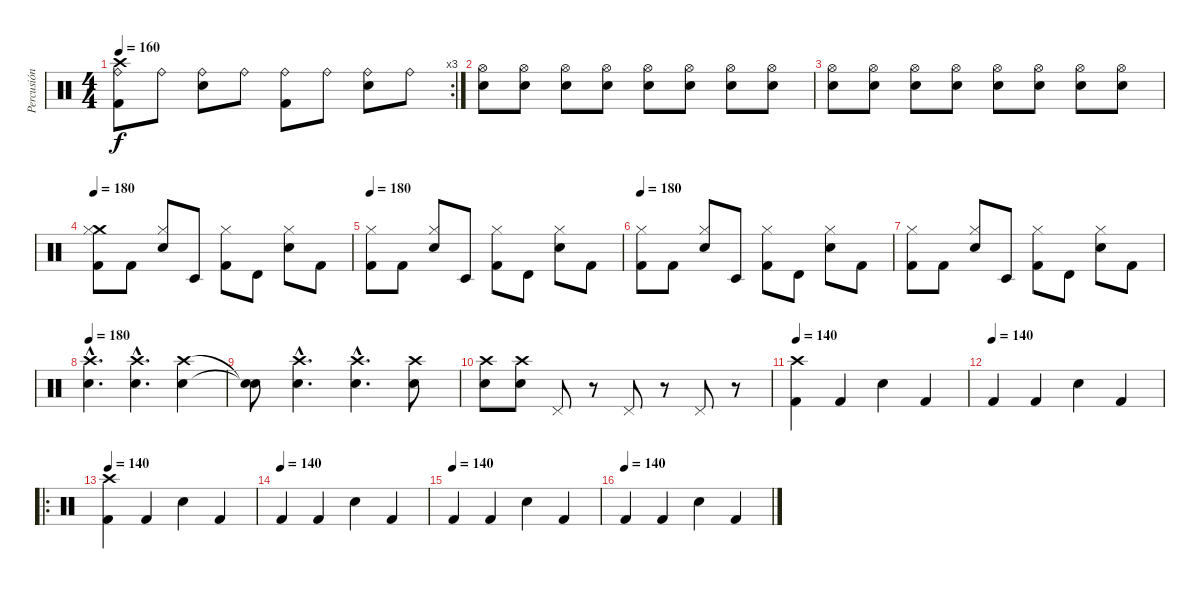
\track ("Percusión" "Percusión") {instrument percussion}
\staff {score}
\articulation defaults
\rc 3
\ts (4 4)
\tempo 160
\clef neutral
\ks c
("Crash high (hit)" "Ride (bell)" "Kick (hit) 2").8{dy f} "Ride (bell)".8 ("Ride (bell)" "Snare (hit) 2").8 "Ride (bell)".8 ("Ride (bell)" "Kick (hit) 2").8 "Ride (bell)".8 ("Ride (bell)" "Snare (hit) 2").8 "Ride (bell)".8 |
("Hi-Hat (open)" "Snare (hit) 2").8 ("Hi-Hat (open)" "Snare (hit) 2").8 ("Hi-Hat (open)" "Snare (hit) 2").8 ("Hi-Hat (open)" "Snare (hit) 2").8 ("Hi-Hat (open)" "Snare (hit) 2").8 ("Hi-Hat (open)" "Snare (hit) 2").8 ("Hi-Hat (open)" "Snare (hit) 2").8 ("Hi-Hat (open)" "Snare (hit) 2").8 |
("Hi-Hat (open)" "Snare (hit) 2").8 ("Hi-Hat (open)" "Snare (hit) 2").8 ("Hi-Hat (open)" "Snare (hit) 2").8 ("Hi-Hat (open)" "Snare (hit) 2").8 ("Hi-Hat (open)" "Snare (hit) 2").8 ("Hi-Hat (open)" "Snare (hit) 2").8 ("Hi-Hat (open)" "Snare (hit) 2").8 ("Hi-Hat (open)" "Snare (hit) 2").8 |
\tempo 180
("Crash medium (hit)" "Hi-Hat (closed)" "Kick (hit) 2").8 "Kick (hit) 2".8 ("Hi-Hat (closed)" "Snare (hit) 2").8 "Timbale low (hit)".8 ("Hi-Hat (closed)" "Kick (hit) 2").8 "Timbale high (hit)".8 ("Hi-Hat (closed)" "Snare (hit) 2").8 "Kick (hit) 2".8 |
\tempo 180
("Hi-Hat (closed)" "Kick (hit) 2").8 "Kick (hit) 2".8 ("Hi-Hat (closed)" "Snare (hit) 2").8 "Timbale low (hit)".8 ("Hi-Hat (closed)" "Kick (hit) 2").8 "Timbale high (hit)".8 ("Hi-Hat (closed)" "Snare (hit) 2").8 "Kick (hit) 2".8 |
\tempo 180
("Hi-Hat (closed)" "Kick (hit) 2").8 "Kick (hit) 2".8 ("Hi-Hat (closed)" "Snare (hit) 2").8 "Timbale low (hit)".8 ("Hi-Hat (closed)" "Kick (hit) 2").8 "Timbale high (hit)".8 ("Hi-Hat (closed)" "Snare (hit) 2").8 "Kick (hit) 2".8 |
("Hi-Hat (closed)" "Kick (hit) 2").8 "Kick (hit) 2".8 ("Hi-Hat (closed)" "Snare (hit) 2").8 "Timbale low (hit)".8 ("Hi-Hat (closed)" "Kick (hit) 2").8 "Timbale high (hit)".8 ("Hi-Hat (closed)" "Snare (hit) 2").8 "Kick (hit) 2".8 |
\tempo 180
("Crash high (hit)"{hac} "Snare (hit) 2"{hac}).4{d} ("Crash high (hit)"{hac} "Snare (hit) 2"{hac}).4{d} ("Crash high (hit)" "Snare (hit) 2").4 |
("Snare (hit)"{t} "Snare (hit)"{t}).8 ("Crash high (hit)"{hac} "Snare (hit) 2"{hac}).4{d} ("Crash high (hit)"{hac} "Snare (hit) 2"{hac}).4{d} ("Crash high (hit)" "Snare (hit) 2").8 |
("Crash high (hit)" "Snare (hit) 2").8 ("Crash high (hit)" "Snare (hit) 2").8 "Pedal Hi-Hat (hit)".8 r.8 "Pedal Hi-Hat (hit)".8 r.8 "Pedal Hi-Hat (hit)".8 r.8 |
\tempo 140
("Crash high (hit)" "Kick (hit) 2").4 "Kick (hit) 2".4 "Snare (hit) 2".4 "Kick (hit) 2".4 |
\tempo (140)
"Kick (hit) 2".4 "Kick (hit) 2".4 "Snare (hit) 2".4 "Kick (hit) 2".4 |
\ro
\tempo 140
("Crash high (hit)" "Kick (hit) 2").4 "Kick (hit) 2".4 "Snare (hit) 2".4 "Kick (hit) 2".4 |
\tempo (140)
"Kick (hit) 2".4 "Kick (hit) 2".4 "Snare (hit) 2".4 "Kick (hit) 2".4 |
\tempo (140)
"Kick (hit) 2".4 "Kick (hit) 2".4 "Snare (hit) 2".4 "Kick (hit) 2".4 |
\tempo (140)
"Kick (hit) 2".4 "Kick (hit) 2".4 "Snare (hit) 2".4 "Kick (hit) 2".4
